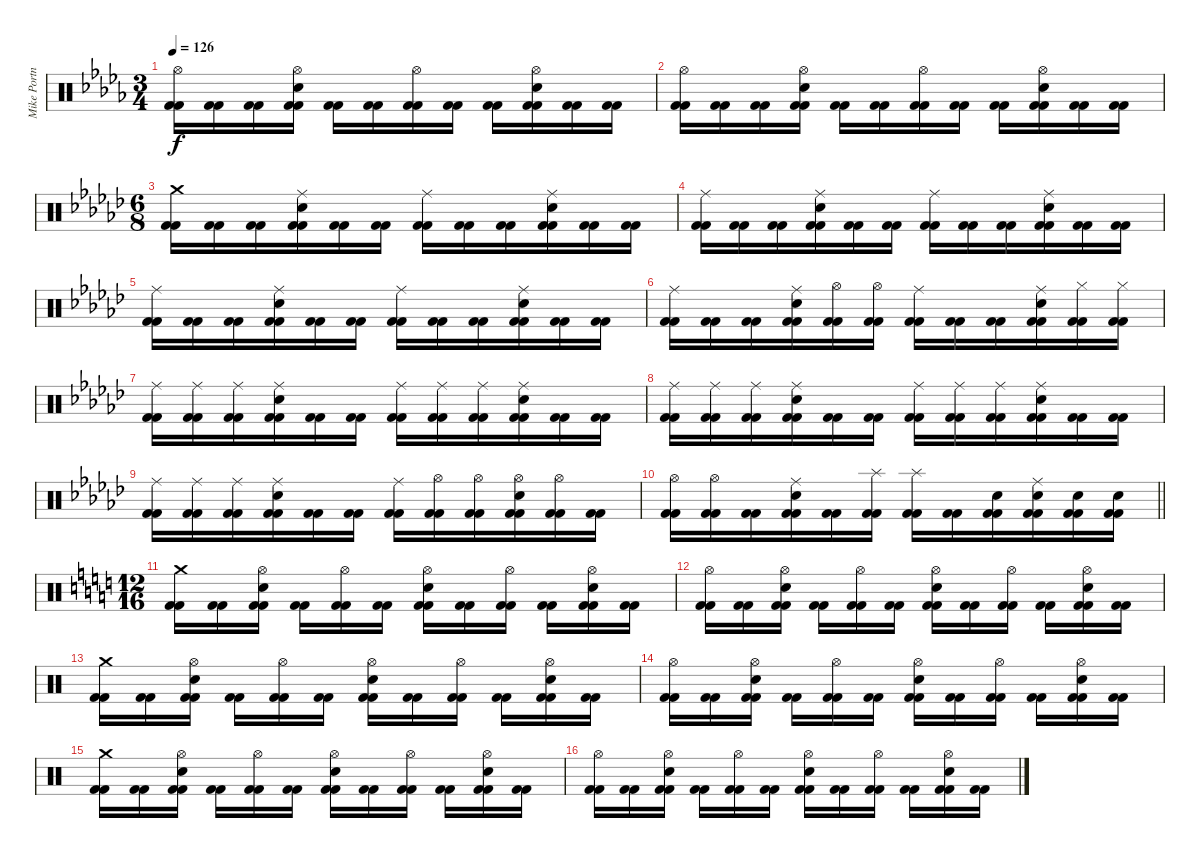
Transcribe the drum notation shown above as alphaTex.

\track ("Mike Portnoy" "Mike Portn") {instrument percussion}
\staff {score}
\articulation defaults
\ts (3 4)
\tempo 126
\clef neutral
\ks bbminor
("Hi-Hat (open)" "Kick (hit) 2" "Kick (hit) 2").16{dy f} ("Kick (hit) 2" "Kick (hit) 2").16 ("Kick (hit) 2" "Kick (hit) 2").16 ("Hi-Hat (open)" "Electric Snare (hit)" "Kick (hit) 2" "Kick (hit) 2").16 ("Kick (hit) 2" "Kick (hit) 2").16 ("Kick (hit) 2" "Kick (hit) 2").16 ("Hi-Hat (open)" "Kick (hit) 2" "Kick (hit) 2").16 ("Kick (hit) 2" "Kick (hit) 2").16 ("Kick (hit) 2" "Kick (hit) 2").16 ("Hi-Hat (open)" "Electric Snare (hit)" "Kick (hit) 2" "Kick (hit) 2").16 ("Kick (hit) 2" "Kick (hit) 2").16 ("Kick (hit) 2" "Kick (hit) 2").16 |
("Hi-Hat (open)" "Kick (hit) 2" "Kick (hit) 2").16 ("Kick (hit) 2" "Kick (hit) 2").16 ("Kick (hit) 2" "Kick (hit) 2").16 ("Hi-Hat (open)" "Electric Snare (hit)" "Kick (hit) 2" "Kick (hit) 2").16 ("Kick (hit) 2" "Kick (hit) 2").16 ("Kick (hit) 2" "Kick (hit) 2").16 ("Hi-Hat (open)" "Kick (hit) 2" "Kick (hit) 2").16 ("Kick (hit) 2" "Kick (hit) 2").16 ("Kick (hit) 2" "Kick (hit) 2").16 ("Hi-Hat (open)" "Electric Snare (hit)" "Kick (hit) 2" "Kick (hit) 2").16 ("Kick (hit) 2" "Kick (hit) 2").16 ("Kick (hit) 2" "Kick (hit) 2").16 |
\ts (6 8)
\ks ebminor
("Crash medium (hit)" "Kick (hit) 2" "Kick (hit) 2").16 ("Kick (hit) 2" "Kick (hit) 2").16 ("Kick (hit) 2" "Kick (hit) 2").16 ("Ride (middle)" "Electric Snare (hit)" "Kick (hit) 2" "Kick (hit) 2").16 ("Kick (hit) 2" "Kick (hit) 2").16 ("Kick (hit) 2" "Kick (hit) 2").16 ("Ride (middle)" "Kick (hit) 2" "Kick (hit) 2").16 ("Kick (hit) 2" "Kick (hit) 2").16 ("Kick (hit) 2" "Kick (hit) 2").16 ("Ride (middle)" "Electric Snare (hit)" "Kick (hit) 2" "Kick (hit) 2").16 ("Kick (hit) 2" "Kick (hit) 2").16 ("Kick (hit) 2" "Kick (hit) 2").16 |
("Ride (middle)" "Kick (hit) 2" "Kick (hit) 2").16 ("Kick (hit) 2" "Kick (hit) 2").16 ("Kick (hit) 2" "Kick (hit) 2").16 ("Ride (middle)" "Electric Snare (hit)" "Kick (hit) 2" "Kick (hit) 2").16 ("Kick (hit) 2" "Kick (hit) 2").16 ("Kick (hit) 2" "Kick (hit) 2").16 ("Ride (middle)" "Kick (hit) 2" "Kick (hit) 2").16 ("Kick (hit) 2" "Kick (hit) 2").16 ("Kick (hit) 2" "Kick (hit) 2").16 ("Ride (middle)" "Electric Snare (hit)" "Kick (hit) 2" "Kick (hit) 2").16 ("Kick (hit) 2" "Kick (hit) 2").16 ("Kick (hit) 2" "Kick (hit) 2").16 |
("Ride (middle)" "Kick (hit) 2" "Kick (hit) 2").16 ("Kick (hit) 2" "Kick (hit) 2").16 ("Kick (hit) 2" "Kick (hit) 2").16 ("Ride (middle)" "Electric Snare (hit)" "Kick (hit) 2" "Kick (hit) 2").16 ("Kick (hit) 2" "Kick (hit) 2").16 ("Kick (hit) 2" "Kick (hit) 2").16 ("Ride (middle)" "Kick (hit) 2" "Kick (hit) 2").16 ("Kick (hit) 2" "Kick (hit) 2").16 ("Kick (hit) 2" "Kick (hit) 2").16 ("Ride (middle)" "Electric Snare (hit)" "Kick (hit) 2" "Kick (hit) 2").16 ("Kick (hit) 2" "Kick (hit) 2").16 ("Kick (hit) 2" "Kick (hit) 2").16 |
("Ride (middle)" "Kick (hit) 2" "Kick (hit) 2").16 ("Kick (hit) 2" "Kick (hit) 2").16 ("Kick (hit) 2" "Kick (hit) 2").16 ("Ride (middle)" "Electric Snare (hit)" "Kick (hit) 2" "Kick (hit) 2").16 ("Hi-Hat (open)" "Kick (hit) 2" "Kick (hit) 2").16 ("Hi-Hat (open)" "Kick (hit) 2" "Kick (hit) 2").16 ("Ride (middle)" "Kick (hit) 2" "Kick (hit) 2").16 ("Kick (hit) 2" "Kick (hit) 2").16 ("Kick (hit) 2" "Kick (hit) 2").16 ("Ride (middle)" "Electric Snare (hit)" "Kick (hit) 2" "Kick (hit) 2").16 ("Hi-Hat (closed)" "Kick (hit) 2" "Kick (hit) 2").16 ("Hi-Hat (closed)" "Kick (hit) 2" "Kick (hit) 2").16 |
("Ride (middle)" "Kick (hit) 2" "Kick (hit) 2").16 ("Ride (middle)" "Kick (hit) 2" "Kick (hit) 2").16 ("Ride (middle)" "Kick (hit) 2" "Kick (hit) 2").16 ("Ride (middle)" "Electric Snare (hit)" "Kick (hit) 2" "Kick (hit) 2").16 ("Kick (hit) 2" "Kick (hit) 2").16 ("Kick (hit) 2" "Kick (hit) 2").16 ("Ride (middle)" "Kick (hit) 2" "Kick (hit) 2").16 ("Ride (middle)" "Kick (hit) 2" "Kick (hit) 2").16 ("Ride (middle)" "Kick (hit) 2" "Kick (hit) 2").16 ("Ride (middle)" "Electric Snare (hit)" "Kick (hit) 2" "Kick (hit) 2").16 ("Kick (hit) 2" "Kick (hit) 2").16 ("Kick (hit) 2" "Kick (hit) 2").16 |
("Ride (middle)" "Kick (hit) 2" "Kick (hit) 2").16 ("Ride (middle)" "Kick (hit) 2" "Kick (hit) 2").16 ("Ride (middle)" "Kick (hit) 2" "Kick (hit) 2").16 ("Ride (middle)" "Electric Snare (hit)" "Kick (hit) 2" "Kick (hit) 2").16 ("Kick (hit) 2" "Kick (hit) 2").16 ("Kick (hit) 2" "Kick (hit) 2").16 ("Ride (middle)" "Kick (hit) 2" "Kick (hit) 2").16 ("Ride (middle)" "Kick (hit) 2" "Kick (hit) 2").16 ("Ride (middle)" "Kick (hit) 2" "Kick (hit) 2").16 ("Ride (middle)" "Electric Snare (hit)" "Kick (hit) 2" "Kick (hit) 2").16 ("Kick (hit) 2" "Kick (hit) 2").16 ("Kick (hit) 2" "Kick (hit) 2").16 |
("Ride (middle)" "Kick (hit) 2" "Kick (hit) 2").16 ("Ride (middle)" "Kick (hit) 2" "Kick (hit) 2").16 ("Ride (middle)" "Kick (hit) 2" "Kick (hit) 2").16 ("Ride (middle)" "Electric Snare (hit)" "Kick (hit) 2" "Kick (hit) 2").16 ("Kick (hit) 2" "Kick (hit) 2").16 ("Kick (hit) 2" "Kick (hit) 2").16 ("Ride (middle)" "Kick (hit) 2" "Kick (hit) 2").16 ("Hi-Hat (open)" "Kick (hit) 2" "Kick (hit) 2").16 ("Hi-Hat (open)" "Kick (hit) 2" "Kick (hit) 2").16 ("Hi-Hat (open)" "Electric Snare (hit)" "Kick (hit) 2" "Kick (hit) 2").16 ("Hi-Hat (open)" "Kick (hit) 2" "Kick (hit) 2").16 ("Kick (hit) 2" "Kick (hit) 2").16 |
\barLineRight lightlight
("Hi-Hat (open)" "Kick (hit) 2" "Kick (hit) 2").16 ("Hi-Hat (open)" "Kick (hit) 2" "Kick (hit) 2").16 ("Kick (hit) 2" "Kick (hit) 2").16 ("Ride (middle)" "Electric Snare (hit)" "Kick (hit) 2" "Kick (hit) 2").16 ("Kick (hit) 2" "Kick (hit) 2").16 ("Splash (hit)" "Kick (hit) 2" "Kick (hit) 2").16 ("Splash (hit)" "Kick (hit) 2" "Kick (hit) 2").16 ("Kick (hit) 2" "Kick (hit) 2").16 ("Electric Snare (hit)" "Kick (hit) 2" "Kick (hit) 2").16 ("Ride (middle)" "Electric Snare (hit)" "Kick (hit) 2" "Kick (hit) 2").16 ("Electric Snare (hit)" "Kick (hit) 2" "Kick (hit) 2").16 ("Electric Snare (hit)" "Kick (hit) 2" "Kick (hit) 2").16 |
\ts (12 16)
\ks c
("Crash medium (hit)" "Kick (hit) 2" "Kick (hit) 2").16 ("Kick (hit) 2" "Kick (hit) 2").16 ("Hi-Hat (open)" "Electric Snare (hit)" "Kick (hit) 2" "Kick (hit) 2").16 ("Kick (hit) 2" "Kick (hit) 2").16 ("Hi-Hat (open)" "Kick (hit) 2" "Kick (hit) 2").16 ("Kick (hit) 2" "Kick (hit) 2").16 ("Hi-Hat (open)" "Electric Snare (hit)" "Kick (hit) 2" "Kick (hit) 2").16 ("Kick (hit) 2" "Kick (hit) 2").16 ("Hi-Hat (open)" "Kick (hit) 2" "Kick (hit) 2").16 ("Kick (hit) 2" "Kick (hit) 2").16 ("Hi-Hat (open)" "Electric Snare (hit)" "Kick (hit) 2" "Kick (hit) 2").16 ("Kick (hit) 2" "Kick (hit) 2").16 |
("Hi-Hat (open)" "Kick (hit) 2" "Kick (hit) 2").16 ("Kick (hit) 2" "Kick (hit) 2").16 ("Hi-Hat (open)" "Electric Snare (hit)" "Kick (hit) 2" "Kick (hit) 2").16 ("Kick (hit) 2" "Kick (hit) 2").16 ("Hi-Hat (open)" "Kick (hit) 2" "Kick (hit) 2").16 ("Kick (hit) 2" "Kick (hit) 2").16 ("Hi-Hat (open)" "Electric Snare (hit)" "Kick (hit) 2" "Kick (hit) 2").16 ("Kick (hit) 2" "Kick (hit) 2").16 ("Hi-Hat (open)" "Kick (hit) 2" "Kick (hit) 2").16 ("Kick (hit) 2" "Kick (hit) 2").16 ("Hi-Hat (open)" "Electric Snare (hit)" "Kick (hit) 2" "Kick (hit) 2").16 ("Kick (hit) 2" "Kick (hit) 2").16 |
("Crash medium (hit)" "Kick (hit) 2" "Kick (hit) 2").16 ("Kick (hit) 2" "Kick (hit) 2").16 ("Hi-Hat (open)" "Electric Snare (hit)" "Kick (hit) 2" "Kick (hit) 2").16 ("Kick (hit) 2" "Kick (hit) 2").16 ("Hi-Hat (open)" "Kick (hit) 2" "Kick (hit) 2").16 ("Kick (hit) 2" "Kick (hit) 2").16 ("Hi-Hat (open)" "Electric Snare (hit)" "Kick (hit) 2" "Kick (hit) 2").16 ("Kick (hit) 2" "Kick (hit) 2").16 ("Hi-Hat (open)" "Kick (hit) 2" "Kick (hit) 2").16 ("Kick (hit) 2" "Kick (hit) 2").16 ("Hi-Hat (open)" "Electric Snare (hit)" "Kick (hit) 2" "Kick (hit) 2").16 ("Kick (hit) 2" "Kick (hit) 2").16 |
("Hi-Hat (open)" "Kick (hit) 2" "Kick (hit) 2").16 ("Kick (hit) 2" "Kick (hit) 2").16 ("Hi-Hat (open)" "Electric Snare (hit)" "Kick (hit) 2" "Kick (hit) 2").16 ("Kick (hit) 2" "Kick (hit) 2").16 ("Hi-Hat (open)" "Kick (hit) 2" "Kick (hit) 2").16 ("Kick (hit) 2" "Kick (hit) 2").16 ("Hi-Hat (open)" "Electric Snare (hit)" "Kick (hit) 2" "Kick (hit) 2").16 ("Kick (hit) 2" "Kick (hit) 2").16 ("Hi-Hat (open)" "Kick (hit) 2" "Kick (hit) 2").16 ("Kick (hit) 2" "Kick (hit) 2").16 ("Hi-Hat (open)" "Electric Snare (hit)" "Kick (hit) 2" "Kick (hit) 2").16 ("Kick (hit) 2" "Kick (hit) 2").16 |
("Crash medium (hit)" "Kick (hit) 2" "Kick (hit) 2").16 ("Kick (hit) 2" "Kick (hit) 2").16 ("Hi-Hat (open)" "Electric Snare (hit)" "Kick (hit) 2" "Kick (hit) 2").16 ("Kick (hit) 2" "Kick (hit) 2").16 ("Hi-Hat (open)" "Kick (hit) 2" "Kick (hit) 2").16 ("Kick (hit) 2" "Kick (hit) 2").16 ("Hi-Hat (open)" "Electric Snare (hit)" "Kick (hit) 2" "Kick (hit) 2").16 ("Kick (hit) 2" "Kick (hit) 2").16 ("Hi-Hat (open)" "Kick (hit) 2" "Kick (hit) 2").16 ("Kick (hit) 2" "Kick (hit) 2").16 ("Hi-Hat (open)" "Electric Snare (hit)" "Kick (hit) 2" "Kick (hit) 2").16 ("Kick (hit) 2" "Kick (hit) 2").16 |
("Hi-Hat (open)" "Kick (hit) 2" "Kick (hit) 2").16 ("Kick (hit) 2" "Kick (hit) 2").16 ("Hi-Hat (open)" "Electric Snare (hit)" "Kick (hit) 2" "Kick (hit) 2").16 ("Kick (hit) 2" "Kick (hit) 2").16 ("Hi-Hat (open)" "Kick (hit) 2" "Kick (hit) 2").16 ("Kick (hit) 2" "Kick (hit) 2").16 ("Hi-Hat (open)" "Electric Snare (hit)" "Kick (hit) 2" "Kick (hit) 2").16 ("Kick (hit) 2" "Kick (hit) 2").16 ("Hi-Hat (open)" "Kick (hit) 2" "Kick (hit) 2").16 ("Kick (hit) 2" "Kick (hit) 2").16 ("Hi-Hat (open)" "Electric Snare (hit)" "Kick (hit) 2" "Kick (hit) 2").16 ("Kick (hit) 2" "Kick (hit) 2").16
